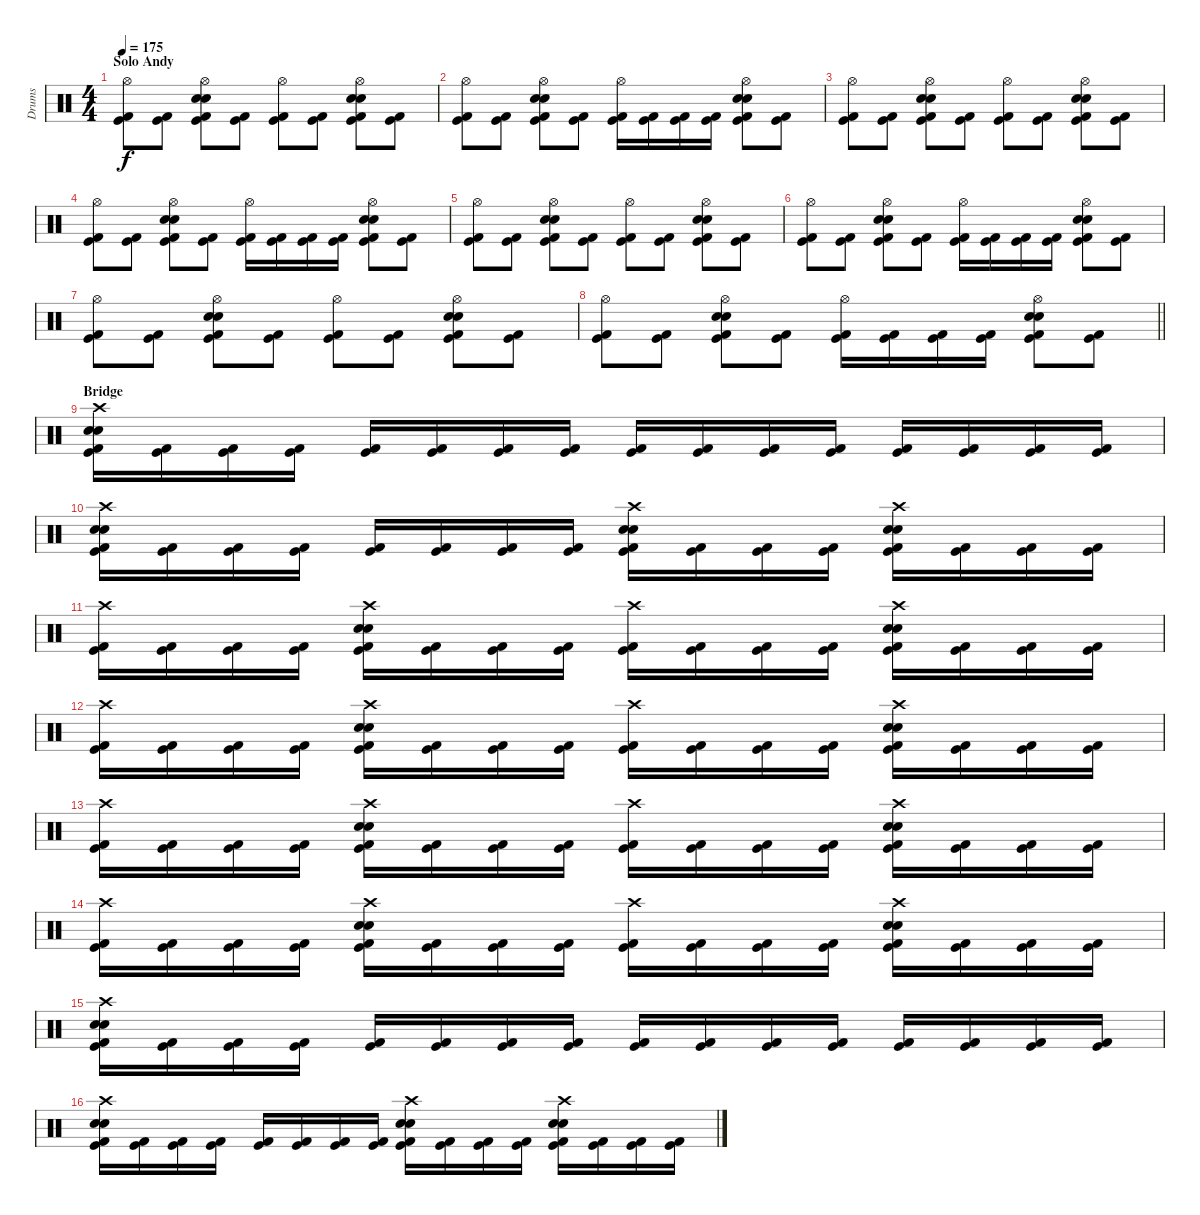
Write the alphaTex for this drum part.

\track ("Drums" "Drums") {instrument percussion}
\staff {score}
\articulation defaults
\ts (4 4)
\section ("" "Solo Andy")
\tempo 175
\clef neutral
\ks c
("Hi-Hat (open)" "Kick (hit) 2" "Kick (hit)").8{dy f} ("Kick (hit) 2" "Kick (hit)").8 ("Hi-Hat (open)" "Electric Snare (hit)" "Electric Snare (hit)" "Kick (hit) 2" "Kick (hit)").8 ("Kick (hit) 2" "Kick (hit)").8 ("Hi-Hat (open)" "Kick (hit) 2" "Kick (hit)").8 ("Kick (hit) 2" "Kick (hit)").8 ("Hi-Hat (open)" "Electric Snare (hit)" "Electric Snare (hit)" "Kick (hit) 2" "Kick (hit)").8 ("Kick (hit) 2" "Kick (hit)").8 |
("Hi-Hat (open)" "Kick (hit) 2" "Kick (hit)").8 ("Kick (hit) 2" "Kick (hit)").8 ("Hi-Hat (open)" "Electric Snare (hit)" "Electric Snare (hit)" "Kick (hit) 2" "Kick (hit)").8 ("Kick (hit) 2" "Kick (hit)").8 ("Hi-Hat (open)" "Kick (hit) 2" "Kick (hit)").16 ("Kick (hit) 2" "Kick (hit)").16 ("Kick (hit) 2" "Kick (hit)").16 ("Kick (hit) 2" "Kick (hit)").16 ("Hi-Hat (open)" "Electric Snare (hit)" "Electric Snare (hit)" "Kick (hit) 2" "Kick (hit)").8 ("Kick (hit) 2" "Kick (hit)").8 |
("Hi-Hat (open)" "Kick (hit) 2" "Kick (hit)").8 ("Kick (hit) 2" "Kick (hit)").8 ("Hi-Hat (open)" "Electric Snare (hit)" "Electric Snare (hit)" "Kick (hit) 2" "Kick (hit)").8 ("Kick (hit) 2" "Kick (hit)").8 ("Hi-Hat (open)" "Kick (hit) 2" "Kick (hit)").8 ("Kick (hit) 2" "Kick (hit)").8 ("Hi-Hat (open)" "Electric Snare (hit)" "Electric Snare (hit)" "Kick (hit) 2" "Kick (hit)").8 ("Kick (hit) 2" "Kick (hit)").8 |
("Hi-Hat (open)" "Kick (hit) 2" "Kick (hit)").8 ("Kick (hit) 2" "Kick (hit)").8 ("Hi-Hat (open)" "Electric Snare (hit)" "Electric Snare (hit)" "Kick (hit) 2" "Kick (hit)").8 ("Kick (hit) 2" "Kick (hit)").8 ("Hi-Hat (open)" "Kick (hit) 2" "Kick (hit)").16 ("Kick (hit) 2" "Kick (hit)").16 ("Kick (hit) 2" "Kick (hit)").16 ("Kick (hit) 2" "Kick (hit)").16 ("Hi-Hat (open)" "Electric Snare (hit)" "Electric Snare (hit)" "Kick (hit) 2" "Kick (hit)").8 ("Kick (hit) 2" "Kick (hit)").8 |
("Hi-Hat (open)" "Kick (hit) 2" "Kick (hit)").8 ("Kick (hit) 2" "Kick (hit)").8 ("Hi-Hat (open)" "Electric Snare (hit)" "Electric Snare (hit)" "Kick (hit) 2" "Kick (hit)").8 ("Kick (hit) 2" "Kick (hit)").8 ("Hi-Hat (open)" "Kick (hit) 2" "Kick (hit)").8 ("Kick (hit) 2" "Kick (hit)").8 ("Hi-Hat (open)" "Electric Snare (hit)" "Electric Snare (hit)" "Kick (hit) 2" "Kick (hit)").8 ("Kick (hit) 2" "Kick (hit)").8 |
("Hi-Hat (open)" "Kick (hit) 2" "Kick (hit)").8 ("Kick (hit) 2" "Kick (hit)").8 ("Hi-Hat (open)" "Electric Snare (hit)" "Electric Snare (hit)" "Kick (hit) 2" "Kick (hit)").8 ("Kick (hit) 2" "Kick (hit)").8 ("Hi-Hat (open)" "Kick (hit) 2" "Kick (hit)").16 ("Kick (hit) 2" "Kick (hit)").16 ("Kick (hit) 2" "Kick (hit)").16 ("Kick (hit) 2" "Kick (hit)").16 ("Hi-Hat (open)" "Electric Snare (hit)" "Electric Snare (hit)" "Kick (hit) 2" "Kick (hit)").8 ("Kick (hit) 2" "Kick (hit)").8 |
("Hi-Hat (open)" "Kick (hit) 2" "Kick (hit)").8 ("Kick (hit) 2" "Kick (hit)").8 ("Hi-Hat (open)" "Electric Snare (hit)" "Electric Snare (hit)" "Kick (hit) 2" "Kick (hit)").8 ("Kick (hit) 2" "Kick (hit)").8 ("Hi-Hat (open)" "Kick (hit) 2" "Kick (hit)").8 ("Kick (hit) 2" "Kick (hit)").8 ("Hi-Hat (open)" "Electric Snare (hit)" "Electric Snare (hit)" "Kick (hit) 2" "Kick (hit)").8 ("Kick (hit) 2" "Kick (hit)").8 |
\barLineRight lightlight
("Hi-Hat (open)" "Kick (hit) 2" "Kick (hit)").8 ("Kick (hit) 2" "Kick (hit)").8 ("Hi-Hat (open)" "Electric Snare (hit)" "Electric Snare (hit)" "Kick (hit) 2" "Kick (hit)").8 ("Kick (hit) 2" "Kick (hit)").8 ("Hi-Hat (open)" "Kick (hit) 2" "Kick (hit)").16 ("Kick (hit) 2" "Kick (hit)").16 ("Kick (hit) 2" "Kick (hit)").16 ("Kick (hit) 2" "Kick (hit)").16 ("Hi-Hat (open)" "Electric Snare (hit)" "Electric Snare (hit)" "Kick (hit) 2" "Kick (hit)").8 ("Kick (hit) 2" "Kick (hit)").8 |
\section ("" "Bridge")
("Crash high (hit)" "Electric Snare (hit)" "Electric Snare (hit)" "Kick (hit)" "Kick (hit) 2").16 ("Kick (hit)" "Kick (hit) 2").16 ("Kick (hit)" "Kick (hit) 2").16 ("Kick (hit)" "Kick (hit) 2").16 ("Kick (hit)" "Kick (hit) 2").16 ("Kick (hit)" "Kick (hit) 2").16 ("Kick (hit)" "Kick (hit) 2").16 ("Kick (hit)" "Kick (hit) 2").16 ("Kick (hit)" "Kick (hit) 2").16 ("Kick (hit)" "Kick (hit) 2").16 ("Kick (hit)" "Kick (hit) 2").16 ("Kick (hit)" "Kick (hit) 2").16 ("Kick (hit)" "Kick (hit) 2").16 ("Kick (hit)" "Kick (hit) 2").16 ("Kick (hit)" "Kick (hit) 2").16 ("Kick (hit)" "Kick (hit) 2").16 |
("Crash high (hit)" "Electric Snare (hit)" "Electric Snare (hit)" "Kick (hit)" "Kick (hit) 2").16 ("Kick (hit)" "Kick (hit) 2").16 ("Kick (hit)" "Kick (hit) 2").16 ("Kick (hit)" "Kick (hit) 2").16 ("Kick (hit)" "Kick (hit) 2").16 ("Kick (hit)" "Kick (hit) 2").16 ("Kick (hit)" "Kick (hit) 2").16 ("Kick (hit)" "Kick (hit) 2").16 ("Crash high (hit)" "Electric Snare (hit)" "Electric Snare (hit)" "Kick (hit)" "Kick (hit) 2").16 ("Kick (hit)" "Kick (hit) 2").16 ("Kick (hit)" "Kick (hit) 2").16 ("Kick (hit)" "Kick (hit) 2").16 ("Crash high (hit)" "Electric Snare (hit)" "Electric Snare (hit)" "Kick (hit)" "Kick (hit) 2").16 ("Kick (hit)" "Kick (hit) 2").16 ("Kick (hit)" "Kick (hit) 2").16 ("Kick (hit)" "Kick (hit) 2").16 |
("Crash high (hit)" "Kick (hit)" "Kick (hit) 2").16 ("Kick (hit)" "Kick (hit) 2").16 ("Kick (hit)" "Kick (hit) 2").16 ("Kick (hit)" "Kick (hit) 2").16 ("Crash high (hit)" "Electric Snare (hit)" "Electric Snare (hit)" "Kick (hit)" "Kick (hit) 2").16 ("Kick (hit)" "Kick (hit) 2").16 ("Kick (hit)" "Kick (hit) 2").16 ("Kick (hit)" "Kick (hit) 2").16 ("Crash high (hit)" "Kick (hit)" "Kick (hit) 2").16 ("Kick (hit)" "Kick (hit) 2").16 ("Kick (hit)" "Kick (hit) 2").16 ("Kick (hit)" "Kick (hit) 2").16 ("Crash high (hit)" "Electric Snare (hit)" "Electric Snare (hit)" "Kick (hit)" "Kick (hit) 2").16 ("Kick (hit)" "Kick (hit) 2").16 ("Kick (hit)" "Kick (hit) 2").16 ("Kick (hit)" "Kick (hit) 2").16 |
("Crash high (hit)" "Kick (hit)" "Kick (hit) 2").16 ("Kick (hit)" "Kick (hit) 2").16 ("Kick (hit)" "Kick (hit) 2").16 ("Kick (hit)" "Kick (hit) 2").16 ("Crash high (hit)" "Electric Snare (hit)" "Electric Snare (hit)" "Kick (hit)" "Kick (hit) 2").16 ("Kick (hit)" "Kick (hit) 2").16 ("Kick (hit)" "Kick (hit) 2").16 ("Kick (hit)" "Kick (hit) 2").16 ("Crash high (hit)" "Kick (hit)" "Kick (hit) 2").16 ("Kick (hit)" "Kick (hit) 2").16 ("Kick (hit)" "Kick (hit) 2").16 ("Kick (hit)" "Kick (hit) 2").16 ("Crash high (hit)" "Electric Snare (hit)" "Electric Snare (hit)" "Kick (hit)" "Kick (hit) 2").16 ("Kick (hit)" "Kick (hit) 2").16 ("Kick (hit)" "Kick (hit) 2").16 ("Kick (hit)" "Kick (hit) 2").16 |
("Crash high (hit)" "Kick (hit)" "Kick (hit) 2").16 ("Kick (hit)" "Kick (hit) 2").16 ("Kick (hit)" "Kick (hit) 2").16 ("Kick (hit)" "Kick (hit) 2").16 ("Crash high (hit)" "Electric Snare (hit)" "Electric Snare (hit)" "Kick (hit)" "Kick (hit) 2").16 ("Kick (hit)" "Kick (hit) 2").16 ("Kick (hit)" "Kick (hit) 2").16 ("Kick (hit)" "Kick (hit) 2").16 ("Crash high (hit)" "Kick (hit)" "Kick (hit) 2").16 ("Kick (hit)" "Kick (hit) 2").16 ("Kick (hit)" "Kick (hit) 2").16 ("Kick (hit)" "Kick (hit) 2").16 ("Crash high (hit)" "Electric Snare (hit)" "Electric Snare (hit)" "Kick (hit)" "Kick (hit) 2").16 ("Kick (hit)" "Kick (hit) 2").16 ("Kick (hit)" "Kick (hit) 2").16 ("Kick (hit)" "Kick (hit) 2").16 |
("Crash high (hit)" "Kick (hit)" "Kick (hit) 2").16 ("Kick (hit)" "Kick (hit) 2").16 ("Kick (hit)" "Kick (hit) 2").16 ("Kick (hit)" "Kick (hit) 2").16 ("Crash high (hit)" "Electric Snare (hit)" "Electric Snare (hit)" "Kick (hit)" "Kick (hit) 2").16 ("Kick (hit)" "Kick (hit) 2").16 ("Kick (hit)" "Kick (hit) 2").16 ("Kick (hit)" "Kick (hit) 2").16 ("Crash high (hit)" "Kick (hit)" "Kick (hit) 2").16 ("Kick (hit)" "Kick (hit) 2").16 ("Kick (hit)" "Kick (hit) 2").16 ("Kick (hit)" "Kick (hit) 2").16 ("Crash high (hit)" "Electric Snare (hit)" "Electric Snare (hit)" "Kick (hit)" "Kick (hit) 2").16 ("Kick (hit)" "Kick (hit) 2").16 ("Kick (hit)" "Kick (hit) 2").16 ("Kick (hit)" "Kick (hit) 2").16 |
("Crash high (hit)" "Electric Snare (hit)" "Electric Snare (hit)" "Kick (hit)" "Kick (hit) 2").16 ("Kick (hit)" "Kick (hit) 2").16 ("Kick (hit)" "Kick (hit) 2").16 ("Kick (hit)" "Kick (hit) 2").16 ("Kick (hit)" "Kick (hit) 2").16 ("Kick (hit)" "Kick (hit) 2").16 ("Kick (hit)" "Kick (hit) 2").16 ("Kick (hit)" "Kick (hit) 2").16 ("Kick (hit)" "Kick (hit) 2").16 ("Kick (hit)" "Kick (hit) 2").16 ("Kick (hit)" "Kick (hit) 2").16 ("Kick (hit)" "Kick (hit) 2").16 ("Kick (hit)" "Kick (hit) 2").16 ("Kick (hit)" "Kick (hit) 2").16 ("Kick (hit)" "Kick (hit) 2").16 ("Kick (hit)" "Kick (hit) 2").16 |
("Crash high (hit)" "Electric Snare (hit)" "Electric Snare (hit)" "Kick (hit)" "Kick (hit) 2").16 ("Kick (hit)" "Kick (hit) 2").16 ("Kick (hit)" "Kick (hit) 2").16 ("Kick (hit)" "Kick (hit) 2").16 ("Kick (hit)" "Kick (hit) 2").16 ("Kick (hit)" "Kick (hit) 2").16 ("Kick (hit)" "Kick (hit) 2").16 ("Kick (hit)" "Kick (hit) 2").16 ("Crash high (hit)" "Electric Snare (hit)" "Electric Snare (hit)" "Kick (hit)" "Kick (hit) 2").16 ("Kick (hit)" "Kick (hit) 2").16 ("Kick (hit)" "Kick (hit) 2").16 ("Kick (hit)" "Kick (hit) 2").16 ("Crash high (hit)" "Electric Snare (hit)" "Electric Snare (hit)" "Kick (hit)" "Kick (hit) 2").16 ("Kick (hit)" "Kick (hit) 2").16 ("Kick (hit)" "Kick (hit) 2").16 ("Kick (hit)" "Kick (hit) 2").16
